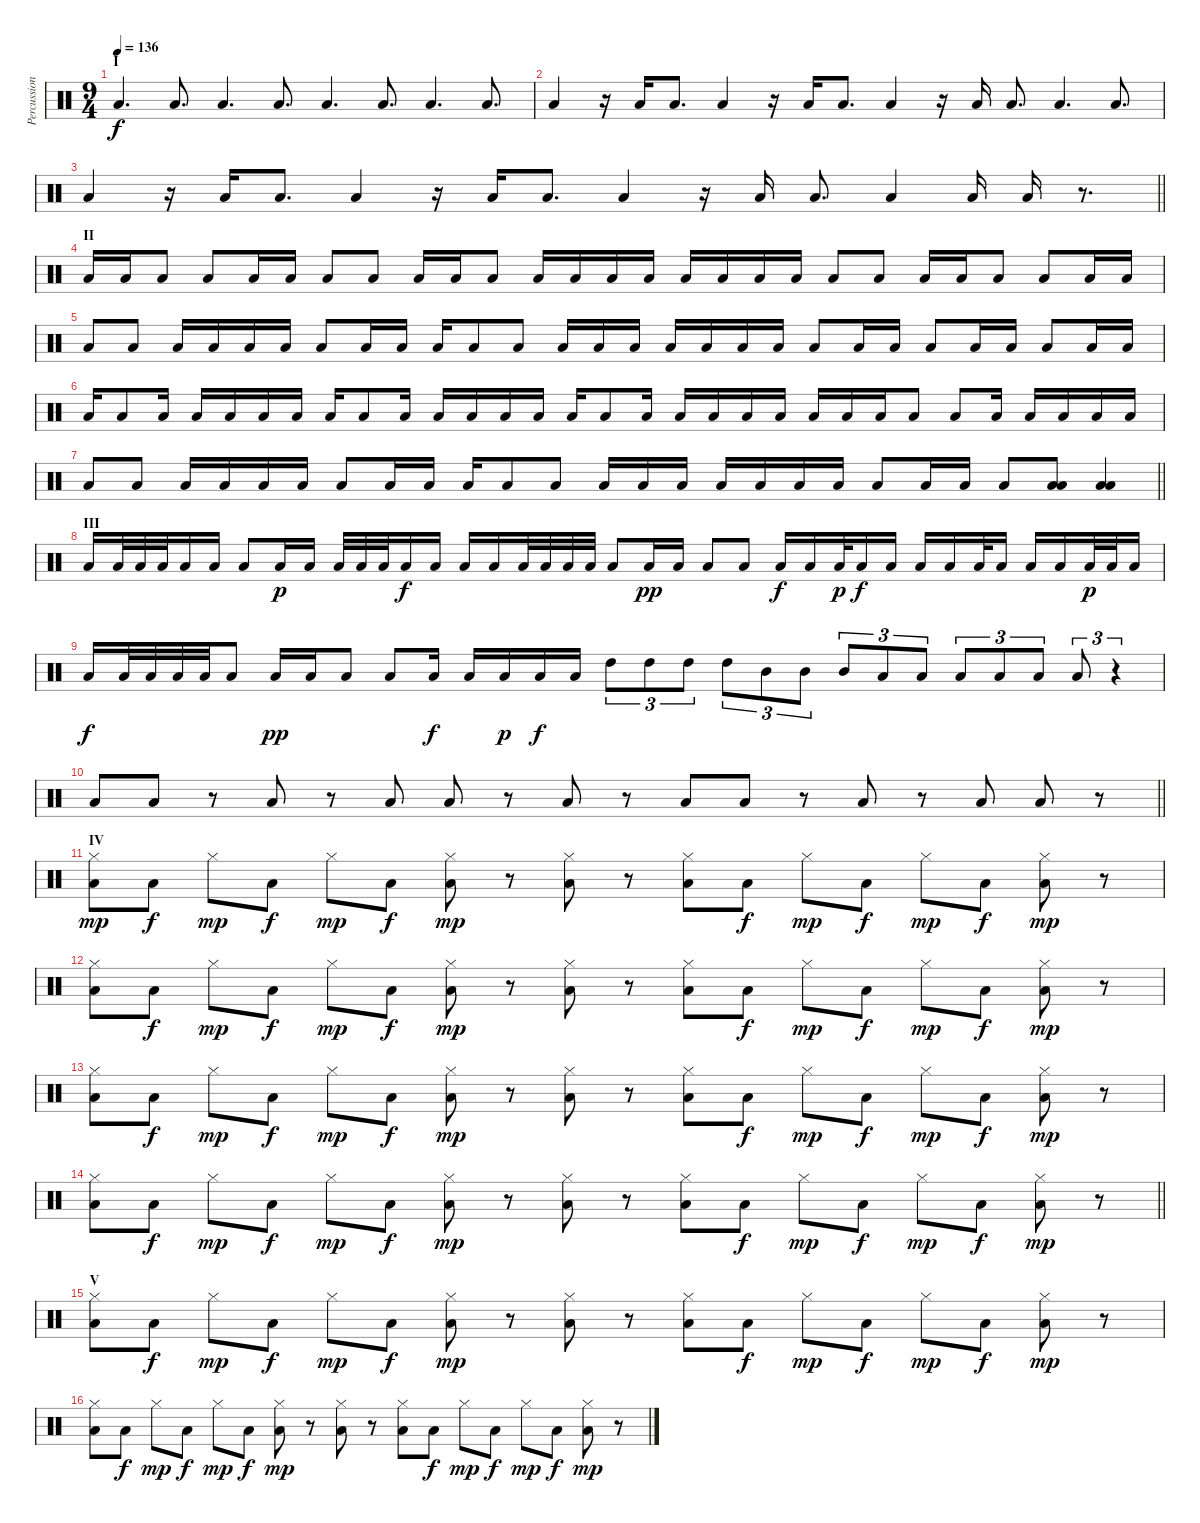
\track ("Percussions" "Percussion") {instrument percussion}
\staff {score}
\articulation defaults
\ts (9 4)
\section ("" "I")
\tempo 136
\clef neutral
\ks c "Low Floor Tom (hit)".4{d dy f} "Low Floor Tom (hit)".8{d} "Low Floor Tom (hit)".4{d} "Low Floor Tom (hit)".8{d} "Low Floor Tom (hit)".4{d} "Low Floor Tom (hit)".8{d} "Low Floor Tom (hit)".4{d} "Low Floor Tom (hit)".8{d}
|
"Low Floor Tom (hit)".4 r.16 "Low Tom (hit)".16 "Low Floor Tom (hit)".8{d} "Low Floor Tom (hit)".4 r.16 "Low Tom (hit)".16 "Low Floor Tom (hit)".8{d} "Low Floor Tom (hit)".4 r.16 "Low Tom (hit)".16 "Low Floor Tom (hit)".8{d} "Low Floor Tom (hit)".4{d} "Low Floor Tom (hit)".8{d} |
\barLineRight lightlight "Low Floor Tom (hit)".4
r.16 "Low Tom (hit)".16 "Low Floor Tom (hit)".8{d} "Low Floor Tom (hit)".4 r.16 "Low Tom (hit)".16 "Low Floor Tom (hit)".8{d} "Low Floor Tom (hit)".4 r.16 "Low Tom (hit)".16 "Low Floor Tom (hit)".8{d} "Low Floor Tom (hit)".4 "Low Tom (hit)".16 "Low Floor Tom (hit)".16 r.8{d} |
\section ("" "II")
"Low Floor Tom (hit)".16 "Low Floor Tom (hit)".16 "Low Floor Tom (hit)".8 "Low Floor Tom (hit)".8 "Low Floor Tom (hit)".16 "Low Floor Tom (hit)".16 "Low Floor Tom (hit)".8 "Low Floor Tom (hit)".8 "Low Floor Tom (hit)".16 "Low Floor Tom (hit)".16 "Low Floor Tom (hit)".8 "Low Floor Tom (hit)".16 "Low Floor Tom (hit)".16 "Low Floor Tom (hit)".16 "Low Floor Tom (hit)".16 "Low Floor Tom (hit)".16 "Low Floor Tom (hit)".16 "Low Floor Tom (hit)".16 "Low Floor Tom (hit)".16 "Low Floor Tom (hit)".8 "Low Floor Tom (hit)".8 "Low Floor Tom (hit)".16 "Low Floor Tom (hit)".16 "Low Floor Tom (hit)".8 "Low Floor Tom (hit)".8 "Low Floor Tom (hit)".16 "Low Floor Tom (hit)".16 |
"Low Floor Tom (hit)".8 "Low Floor Tom (hit)".8 "Low Floor Tom (hit)".16 "Low Floor Tom (hit)".16 "Low Floor Tom (hit)".16 "Low Floor Tom (hit)".16 "Low Floor Tom (hit)".8 "Low Floor Tom (hit)".16 "Low Floor Tom (hit)".16 "Low Floor Tom (hit)".16 "Low Floor Tom (hit)".8 "Low Floor Tom (hit)".8 "Low Floor Tom (hit)".16 "Low Floor Tom (hit)".16 "Low Floor Tom (hit)".16 "Low Floor Tom (hit)".16 "Low Floor Tom (hit)".16 "Low Floor Tom (hit)".16 "Low Floor Tom (hit)".16 "Low Floor Tom (hit)".8 "Low Floor Tom (hit)".16 "Low Floor Tom (hit)".16 "Low Floor Tom (hit)".8 "Low Floor Tom (hit)".16 "Low Floor Tom (hit)".16 "Low Floor Tom (hit)".8 "Low Floor Tom (hit)".16 "Low Floor Tom (hit)".16 |
"Low Floor Tom (hit)".16 "Low Floor Tom (hit)".8 "Low Floor Tom (hit)".16 "Low Floor Tom (hit)".16 "Low Floor Tom (hit)".16 "Low Floor Tom (hit)".16 "Low Floor Tom (hit)".16 "Low Floor Tom (hit)".16 "Low Floor Tom (hit)".8 "Low Floor Tom (hit)".16 "Low Floor Tom (hit)".16 "Low Floor Tom (hit)".16 "Low Floor Tom (hit)".16 "Low Floor Tom (hit)".16 "Low Floor Tom (hit)".16 "Low Floor Tom (hit)".8 "Low Floor Tom (hit)".16 "Low Floor Tom (hit)".16 "Low Floor Tom (hit)".16 "Low Floor Tom (hit)".16 "Low Floor Tom (hit)".16 "Low Floor Tom (hit)".16 "Low Floor Tom (hit)".16 "Low Floor Tom (hit)".16 "Low Floor Tom (hit)".8 "Low Floor Tom (hit)".8 "Low Floor Tom (hit)".16 "Low Floor Tom (hit)".16 "Low Floor Tom (hit)".16 "Low Floor Tom (hit)".16 "Low Floor Tom (hit)".16 |
\barLineRight lightlight "Low Floor Tom (hit)".8 "Low Floor Tom (hit)".8 "Low Floor Tom (hit)".16 "Low Floor Tom (hit)".16 "Low Floor Tom (hit)".16 "Low Floor Tom (hit)".16 "Low Floor Tom (hit)".8 "Low Floor Tom (hit)".16 "Low Floor Tom (hit)".16 "Low Floor Tom (hit)".16 "Low Floor Tom (hit)".8 "Low Floor Tom (hit)".8 "Low Floor Tom (hit)".16 "Low Floor Tom (hit)".16 "Low Floor Tom (hit)".16 "Low Floor Tom (hit)".16 "Low Floor Tom (hit)".16 "Low Floor Tom (hit)".16 "Low Floor Tom (hit)".16 "Low Floor Tom (hit)".8 "Low Floor Tom (hit)".16 "Low Floor Tom (hit)".16 "Low Floor Tom (hit)".8
("Low Floor Tom (hit)" "Low Floor Tom (hit)").8 ("Low Floor Tom (hit)" "Low Floor Tom (hit)").4 |
\section ("" "III")
"Low Floor Tom (hit)".16 "Low Floor Tom (hit)".32 "Low Floor Tom (hit)".32 "Low Floor Tom (hit)".32 "Low Floor Tom (hit)".16 "Low Floor Tom (hit)".16 "Low Floor Tom (hit)".8 "Low Floor Tom (hit)".16{dy p} "Low Floor Tom (hit)".16 "Low Floor Tom (hit)".32 "Low Floor Tom (hit)".32 "Low Floor Tom (hit)".32 "Low Floor Tom (hit)".16{dy f} "Low Floor Tom (hit)".16 "Low Floor Tom (hit)".16 "Low Floor Tom (hit)".16 "Low Floor Tom (hit)".32 "Low Floor Tom (hit)".32 "Low Floor Tom (hit)".32 "Low Floor Tom (hit)".32 "Low Floor Tom (hit)".8 "Low Floor Tom (hit)".16{dy pp} "Low Floor Tom (hit)".16 "Low Floor Tom (hit)".8 "Low Floor Tom (hit)".8 "Low Floor Tom (hit)".16{dy f} "Low Floor Tom (hit)".16 "Low Floor Tom (hit)".32{dy p} "Low Floor Tom (hit)".16{dy f} "Low Floor Tom (hit)".16 "Low Floor Tom (hit)".16 "Low Floor Tom (hit)".16 "Low Floor Tom (hit)".32 "Low Floor Tom (hit)".16 "Low Floor Tom (hit)".16 "Low Floor Tom (hit)".16 "Low Floor Tom (hit)".32{dy p} "Low Floor Tom (hit)".32 "Low Floor Tom (hit)".16 |
"Low Floor Tom (hit)".16{dy f} "Low Floor Tom (hit)".32 "Low Floor Tom (hit)".32 "Low Floor Tom (hit)".32 "Low Floor Tom (hit)".32 "Low Floor Tom (hit)".8 "Low Floor Tom (hit)".16{dy pp} "Low Floor Tom (hit)".16 "Low Floor Tom (hit)".8 "Low Floor Tom (hit)".8 "Low Floor Tom (hit)".16{dy f} "Low Floor Tom (hit)".16 "Low Floor Tom (hit)".16{dy p} "Low Floor Tom (hit)".16{dy f} "Low Floor Tom (hit)".16 "High Tom (hit)".8{tu (3 2)} "High Tom (hit)".8{tu (3 2)} "High Tom (hit)".8{tu (3 2)} "High Tom (hit)".8{tu (3 2)} "Mid Tom (hit)".8{tu (3 2)} "Mid Tom (hit)".8{tu (3 2)} "Mid Tom (hit)".8{tu (3 2)} "Low Tom (hit)".8{tu (3 2)} "Low Tom (hit)".8{tu (3 2)} "Low Tom (hit)".8{tu (3 2)} "Low Floor Tom (hit)".8{tu (3 2)} "Low Floor Tom (hit)".8{tu (3 2)} "Low Floor Tom (hit)".8{tu (3 2)} r.4{tu (3 2)} |
\barLineRight lightlight "Low Floor Tom (hit)".8 "Low Floor Tom (hit)".8
r.8 "Low Floor Tom (hit)".8 r.8 "Low Floor Tom (hit)".8 "Low Floor Tom (hit)".8 r.8 "Low Floor Tom (hit)".8 r.8 "Low Floor Tom (hit)".8 "Low Floor Tom (hit)".8 r.8 "Low Floor Tom (hit)".8 r.8 "Low Floor Tom (hit)".8 "Low Floor Tom (hit)".8 r.8 |
\section ("" "IV")
("Hi-Hat (closed)" "Low Tom (hit)").8{dy mp} "Low Tom (hit)".8{dy f} "Hi-Hat (closed)".8{dy mp} "Low Tom (hit)".8{dy f} "Hi-Hat (closed)".8{dy mp} "Low Tom (hit)".8{dy f} ("Hi-Hat (closed)" "Low Tom (hit)").8{dy mp} r.8 ("Hi-Hat (closed)" "Low Tom (hit)").8 r.8 ("Hi-Hat (closed)" "Low Tom (hit)").8 "Low Tom (hit)".8{dy f} "Hi-Hat (closed)".8{dy mp} "Low Tom (hit)".8{dy f} "Hi-Hat (closed)".8{dy mp} "Low Tom (hit)".8{dy f} ("Hi-Hat (closed)" "Low Tom (hit)").8{dy mp} r.8 |
("Hi-Hat (closed)" "Low Tom (hit)").8 "Low Tom (hit)".8{dy f} "Hi-Hat (closed)".8{dy mp} "Low Tom (hit)".8{dy f} "Hi-Hat (closed)".8{dy mp} "Low Tom (hit)".8{dy f} ("Hi-Hat (closed)" "Low Tom (hit)").8{dy mp} r.8 ("Hi-Hat (closed)" "Low Tom (hit)").8 r.8 ("Hi-Hat (closed)" "Low Tom (hit)").8 "Low Tom (hit)".8{dy f} "Hi-Hat (closed)".8{dy mp} "Low Tom (hit)".8{dy f} "Hi-Hat (closed)".8{dy mp} "Low Tom (hit)".8{dy f} ("Hi-Hat (closed)" "Low Tom (hit)").8{dy mp} r.8 |
("Hi-Hat (closed)" "Low Tom (hit)").8 "Low Tom (hit)".8{dy f} "Hi-Hat (closed)".8{dy mp} "Low Tom (hit)".8{dy f} "Hi-Hat (closed)".8{dy mp} "Low Tom (hit)".8{dy f} ("Hi-Hat (closed)" "Low Tom (hit)").8{dy mp} r.8 ("Hi-Hat (closed)" "Low Tom (hit)").8 r.8 ("Hi-Hat (closed)" "Low Tom (hit)").8 "Low Tom (hit)".8{dy f} "Hi-Hat (closed)".8{dy mp} "Low Tom (hit)".8{dy f} "Hi-Hat (closed)".8{dy mp} "Low Tom (hit)".8{dy f} ("Hi-Hat (closed)" "Low Tom (hit)").8{dy mp} r.8 |
\barLineRight lightlight
("Hi-Hat (closed)" "Low Tom (hit)").8 "Low Tom (hit)".8{dy f} "Hi-Hat (closed)".8{dy mp} "Low Tom (hit)".8{dy f} "Hi-Hat (closed)".8{dy mp} "Low Tom (hit)".8{dy f} ("Hi-Hat (closed)" "Low Tom (hit)").8{dy mp} r.8 ("Hi-Hat (closed)" "Low Tom (hit)").8 r.8 ("Hi-Hat (closed)" "Low Tom (hit)").8 "Low Tom (hit)".8{dy f} "Hi-Hat (closed)".8{dy mp} "Low Tom (hit)".8{dy f} "Hi-Hat (closed)".8{dy mp} "Low Tom (hit)".8{dy f} ("Hi-Hat (closed)" "Low Tom (hit)").8{dy mp} r.8 |
\section ("" "V")
("Hi-Hat (closed)" "Low Tom (hit)").8 "Low Tom (hit)".8{dy f} "Hi-Hat (closed)".8{dy mp} "Low Tom (hit)".8{dy f} "Hi-Hat (closed)".8{dy mp} "Low Tom (hit)".8{dy f} ("Hi-Hat (closed)" "Low Tom (hit)").8{dy mp} r.8 ("Hi-Hat (closed)" "Low Tom (hit)").8 r.8 ("Hi-Hat (closed)" "Low Tom (hit)").8 "Low Tom (hit)".8{dy f} "Hi-Hat (closed)".8{dy mp} "Low Tom (hit)".8{dy f} "Hi-Hat (closed)".8{dy mp} "Low Tom (hit)".8{dy f} ("Hi-Hat (closed)" "Low Tom (hit)").8{dy mp} r.8 |
("Hi-Hat (closed)" "Low Tom (hit)").8 "Low Tom (hit)".8{dy f} "Hi-Hat (closed)".8{dy mp} "Low Tom (hit)".8{dy f} "Hi-Hat (closed)".8{dy mp} "Low Tom (hit)".8{dy f} ("Hi-Hat (closed)" "Low Tom (hit)").8{dy mp} r.8 ("Hi-Hat (closed)" "Low Tom (hit)").8 r.8 ("Hi-Hat (closed)" "Low Tom (hit)").8 "Low Tom (hit)".8{dy f} "Hi-Hat (closed)".8{dy mp} "Low Tom (hit)".8{dy f} "Hi-Hat (closed)".8{dy mp} "Low Tom (hit)".8{dy f} ("Hi-Hat (closed)" "Low Tom (hit)").8{dy mp} r.8
